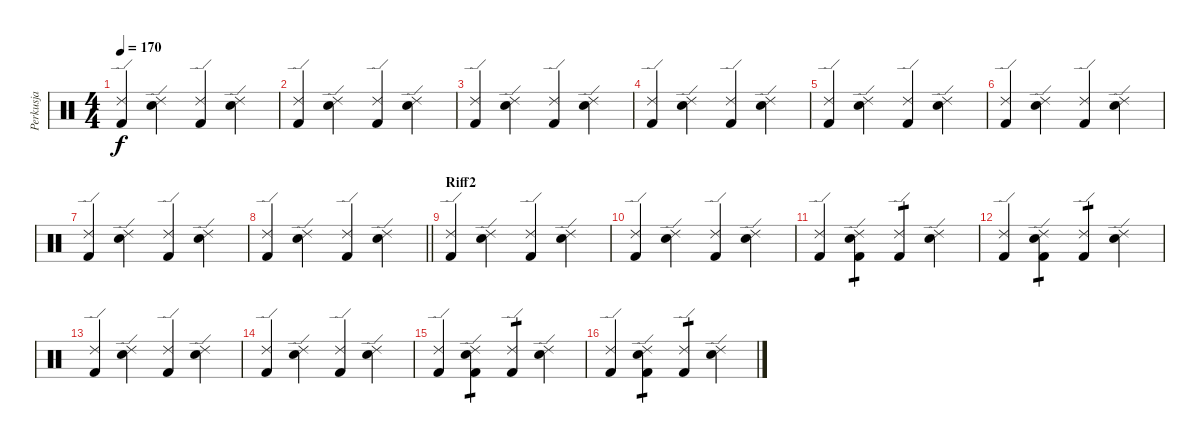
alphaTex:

\track ("Perkusja" "Perkusja") {instrument percussion}
\staff {score}
\articulation defaults
\ts (4 4)
\tempo 170
\clef neutral
\ks c
("Ride (edge) 2" "Kick (hit) 2").4{dy f} ("Ride (edge) 2" "Electric Snare (hit)").4 ("Ride (edge) 2" "Kick (hit) 2").4 ("Ride (edge) 2" "Electric Snare (hit)").4 |
("Ride (edge) 2" "Kick (hit) 2").4 ("Ride (edge) 2" "Electric Snare (hit)").4 ("Ride (edge) 2" "Kick (hit) 2").4 ("Ride (edge) 2" "Electric Snare (hit)").4 |
("Ride (edge) 2" "Kick (hit) 2").4 ("Ride (edge) 2" "Electric Snare (hit)").4 ("Ride (edge) 2" "Kick (hit) 2").4 ("Ride (edge) 2" "Electric Snare (hit)").4 |
("Ride (edge) 2" "Kick (hit) 2").4 ("Ride (edge) 2" "Electric Snare (hit)").4 ("Ride (edge) 2" "Kick (hit) 2").4 ("Ride (edge) 2" "Electric Snare (hit)").4 |
("Ride (edge) 2" "Kick (hit) 2").4 ("Ride (edge) 2" "Electric Snare (hit)").4 ("Ride (edge) 2" "Kick (hit) 2").4 ("Ride (edge) 2" "Electric Snare (hit)").4 |
("Ride (edge) 2" "Kick (hit) 2").4 ("Ride (edge) 2" "Electric Snare (hit)").4 ("Ride (edge) 2" "Kick (hit) 2").4 ("Ride (edge) 2" "Electric Snare (hit)").4 |
("Ride (edge) 2" "Kick (hit) 2").4 ("Ride (edge) 2" "Electric Snare (hit)").4 ("Ride (edge) 2" "Kick (hit) 2").4 ("Ride (edge) 2" "Electric Snare (hit)").4 |
\barLineRight lightlight
("Ride (edge) 2" "Kick (hit) 2").4 ("Ride (edge) 2" "Electric Snare (hit)").4 ("Ride (edge) 2" "Kick (hit) 2").4 ("Ride (edge) 2" "Electric Snare (hit)").4 |
\section ("" "Riff2")
("Ride (edge) 2" "Kick (hit) 2").4 ("Ride (edge) 2" "Electric Snare (hit)").4 ("Ride (edge) 2" "Kick (hit) 2").4 ("Ride (edge) 2" "Electric Snare (hit)").4 |
("Ride (edge) 2" "Kick (hit) 2").4 ("Ride (edge) 2" "Electric Snare (hit)").4 ("Ride (edge) 2" "Kick (hit) 2").4 ("Ride (edge) 2" "Electric Snare (hit)").4 |
("Ride (edge) 2" "Kick (hit) 2").4 ("Ride (edge) 2" "Electric Snare (hit)" "Kick (hit) 2").4{tp 1} ("Ride (edge) 2" "Kick (hit) 2").4{tp 1} ("Ride (edge) 2" "Electric Snare (hit)").4 |
("Ride (edge) 2" "Kick (hit) 2").4 ("Ride (edge) 2" "Electric Snare (hit)" "Kick (hit) 2").4{tp 1} ("Ride (edge) 2" "Kick (hit) 2").4{tp 1} ("Ride (edge) 2" "Electric Snare (hit)").4 |
("Ride (edge) 2" "Kick (hit) 2").4 ("Ride (edge) 2" "Electric Snare (hit)").4 ("Ride (edge) 2" "Kick (hit) 2").4 ("Ride (edge) 2" "Electric Snare (hit)").4 |
("Ride (edge) 2" "Kick (hit) 2").4 ("Ride (edge) 2" "Electric Snare (hit)").4 ("Ride (edge) 2" "Kick (hit) 2").4 ("Ride (edge) 2" "Electric Snare (hit)").4 |
("Ride (edge) 2" "Kick (hit) 2").4 ("Ride (edge) 2" "Electric Snare (hit)" "Kick (hit) 2").4{tp 1} ("Ride (edge) 2" "Kick (hit) 2").4{tp 1} ("Ride (edge) 2" "Electric Snare (hit)").4 |
("Ride (edge) 2" "Kick (hit) 2").4 ("Ride (edge) 2" "Electric Snare (hit)" "Kick (hit) 2").4{tp 1} ("Ride (edge) 2" "Kick (hit) 2").4{tp 1} ("Ride (edge) 2" "Electric Snare (hit)").4
